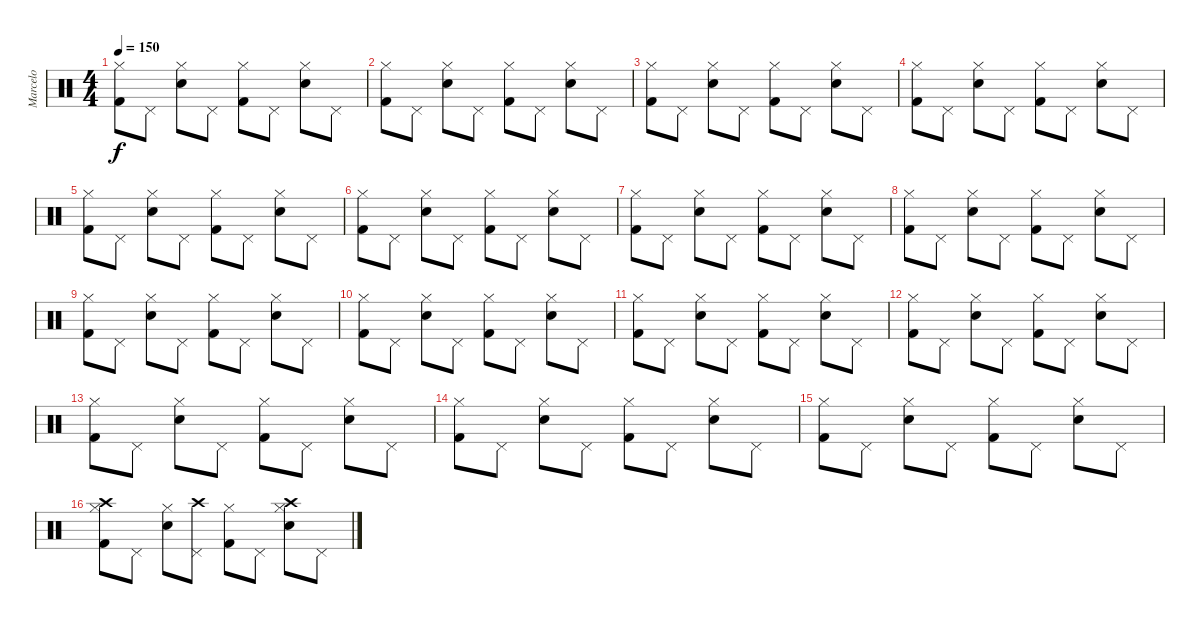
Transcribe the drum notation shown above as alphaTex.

\track ("Marcelo" "Marcelo") {instrument percussion}
\staff {score}
\articulation defaults
\ts (4 4)
\tempo 150
\clef neutral
\ks c
("Hi-Hat (closed)" "Kick (hit) 2").8{dy f} "Pedal Hi-Hat (hit)".8 ("Hi-Hat (closed)" "Electric Snare (hit)").8 "Pedal Hi-Hat (hit)".8 ("Hi-Hat (closed)" "Kick (hit) 2").8 "Pedal Hi-Hat (hit)".8 ("Hi-Hat (closed)" "Electric Snare (hit)").8 "Pedal Hi-Hat (hit)".8 |
("Hi-Hat (closed)" "Kick (hit) 2").8 "Pedal Hi-Hat (hit)".8 ("Hi-Hat (closed)" "Electric Snare (hit)").8 "Pedal Hi-Hat (hit)".8 ("Hi-Hat (closed)" "Kick (hit) 2").8 "Pedal Hi-Hat (hit)".8 ("Hi-Hat (closed)" "Electric Snare (hit)").8 "Pedal Hi-Hat (hit)".8 |
("Hi-Hat (closed)" "Kick (hit) 2").8 "Pedal Hi-Hat (hit)".8 ("Hi-Hat (closed)" "Electric Snare (hit)").8 "Pedal Hi-Hat (hit)".8 ("Hi-Hat (closed)" "Kick (hit) 2").8 "Pedal Hi-Hat (hit)".8 ("Hi-Hat (closed)" "Electric Snare (hit)").8 "Pedal Hi-Hat (hit)".8 |
("Hi-Hat (closed)" "Kick (hit) 2").8 "Pedal Hi-Hat (hit)".8 ("Hi-Hat (closed)" "Electric Snare (hit)").8 "Pedal Hi-Hat (hit)".8 ("Hi-Hat (closed)" "Kick (hit) 2").8 "Pedal Hi-Hat (hit)".8 ("Hi-Hat (closed)" "Electric Snare (hit)").8 "Pedal Hi-Hat (hit)".8 |
("Hi-Hat (closed)" "Kick (hit) 2").8 "Pedal Hi-Hat (hit)".8 ("Hi-Hat (closed)" "Electric Snare (hit)").8 "Pedal Hi-Hat (hit)".8 ("Hi-Hat (closed)" "Kick (hit) 2").8 "Pedal Hi-Hat (hit)".8 ("Hi-Hat (closed)" "Electric Snare (hit)").8 "Pedal Hi-Hat (hit)".8 |
("Hi-Hat (closed)" "Kick (hit) 2").8 "Pedal Hi-Hat (hit)".8 ("Hi-Hat (closed)" "Electric Snare (hit)").8 "Pedal Hi-Hat (hit)".8 ("Hi-Hat (closed)" "Kick (hit) 2").8 "Pedal Hi-Hat (hit)".8 ("Hi-Hat (closed)" "Electric Snare (hit)").8 "Pedal Hi-Hat (hit)".8 |
("Hi-Hat (closed)" "Kick (hit) 2").8 "Pedal Hi-Hat (hit)".8 ("Hi-Hat (closed)" "Electric Snare (hit)").8 "Pedal Hi-Hat (hit)".8 ("Hi-Hat (closed)" "Kick (hit) 2").8 "Pedal Hi-Hat (hit)".8 ("Hi-Hat (closed)" "Electric Snare (hit)").8 "Pedal Hi-Hat (hit)".8 |
("Hi-Hat (closed)" "Kick (hit) 2").8 "Pedal Hi-Hat (hit)".8 ("Hi-Hat (closed)" "Electric Snare (hit)").8 "Pedal Hi-Hat (hit)".8 ("Hi-Hat (closed)" "Kick (hit) 2").8 "Pedal Hi-Hat (hit)".8 ("Hi-Hat (closed)" "Electric Snare (hit)").8 "Pedal Hi-Hat (hit)".8 |
("Hi-Hat (closed)" "Kick (hit) 2").8 "Pedal Hi-Hat (hit)".8 ("Hi-Hat (closed)" "Electric Snare (hit)").8 "Pedal Hi-Hat (hit)".8 ("Hi-Hat (closed)" "Kick (hit) 2").8 "Pedal Hi-Hat (hit)".8 ("Hi-Hat (closed)" "Electric Snare (hit)").8 "Pedal Hi-Hat (hit)".8 |
("Hi-Hat (closed)" "Kick (hit) 2").8 "Pedal Hi-Hat (hit)".8 ("Hi-Hat (closed)" "Electric Snare (hit)").8 "Pedal Hi-Hat (hit)".8 ("Hi-Hat (closed)" "Kick (hit) 2").8 "Pedal Hi-Hat (hit)".8 ("Hi-Hat (closed)" "Electric Snare (hit)").8 "Pedal Hi-Hat (hit)".8 |
("Hi-Hat (closed)" "Kick (hit) 2").8 "Pedal Hi-Hat (hit)".8 ("Hi-Hat (closed)" "Electric Snare (hit)").8 "Pedal Hi-Hat (hit)".8 ("Hi-Hat (closed)" "Kick (hit) 2").8 "Pedal Hi-Hat (hit)".8 ("Hi-Hat (closed)" "Electric Snare (hit)").8 "Pedal Hi-Hat (hit)".8 |
("Hi-Hat (closed)" "Kick (hit) 2").8 "Pedal Hi-Hat (hit)".8 ("Hi-Hat (closed)" "Electric Snare (hit)").8 "Pedal Hi-Hat (hit)".8 ("Hi-Hat (closed)" "Kick (hit) 2").8 "Pedal Hi-Hat (hit)".8 ("Hi-Hat (closed)" "Electric Snare (hit)").8 "Pedal Hi-Hat (hit)".8 |
("Hi-Hat (closed)" "Kick (hit) 2").8 "Pedal Hi-Hat (hit)".8 ("Hi-Hat (closed)" "Electric Snare (hit)").8 "Pedal Hi-Hat (hit)".8 ("Hi-Hat (closed)" "Kick (hit) 2").8 "Pedal Hi-Hat (hit)".8 ("Hi-Hat (closed)" "Electric Snare (hit)").8 "Pedal Hi-Hat (hit)".8 |
("Hi-Hat (closed)" "Kick (hit) 2").8 "Pedal Hi-Hat (hit)".8 ("Hi-Hat (closed)" "Electric Snare (hit)").8 "Pedal Hi-Hat (hit)".8 ("Hi-Hat (closed)" "Kick (hit) 2").8 "Pedal Hi-Hat (hit)".8 ("Hi-Hat (closed)" "Electric Snare (hit)").8 "Pedal Hi-Hat (hit)".8 |
("Hi-Hat (closed)" "Kick (hit) 2").8 "Pedal Hi-Hat (hit)".8 ("Hi-Hat (closed)" "Electric Snare (hit)").8 "Pedal Hi-Hat (hit)".8 ("Hi-Hat (closed)" "Kick (hit) 2").8 "Pedal Hi-Hat (hit)".8 ("Hi-Hat (closed)" "Electric Snare (hit)").8 "Pedal Hi-Hat (hit)".8 |
("Hi-Hat (closed)" "Kick (hit) 2" "Crash high (hit)").8 "Pedal Hi-Hat (hit)".8 ("Hi-Hat (closed)" "Electric Snare (hit)").8 ("Pedal Hi-Hat (hit)" "Crash high (hit)").8 ("Hi-Hat (closed)" "Kick (hit) 2").8 "Pedal Hi-Hat (hit)".8 ("Hi-Hat (closed)" "Electric Snare (hit)" "Crash high (hit)").8 "Pedal Hi-Hat (hit)".8
